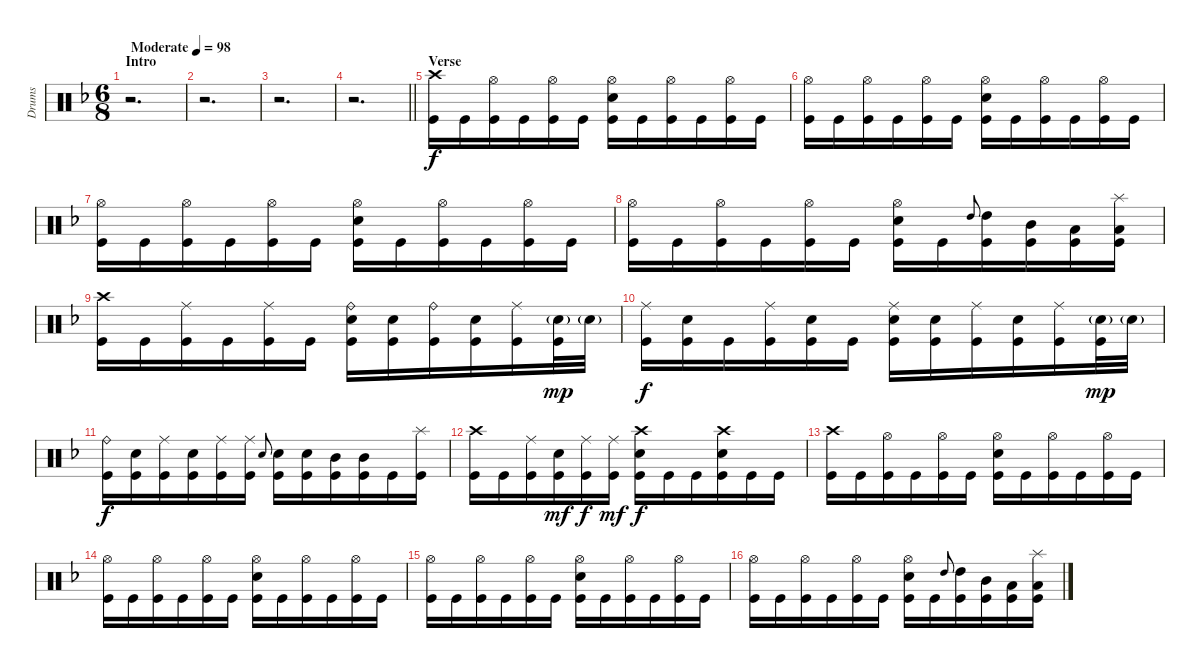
\track ("Drums" "Drums") {instrument percussion bank 10}
\staff {score}
\articulation defaults
\ts (6 8)
\section ("" "Intro")
\tempo (98 "Moderate")
\clef neutral
\ks dminor
r.2{d dy f} |
r.2{d} |
r.2{d} |
\barLineRight lightlight
r.2{d} |
\section ("" "Verse")
("Crash high (hit)" "Kick (hit)").16 "Kick (hit)".16 ("Hi-Hat (open)" "Kick (hit)").16 "Kick (hit)".16 ("Hi-Hat (open)" "Kick (hit)").16 "Kick (hit)".16 ("Hi-Hat (open)" "Electric Snare (hit)" "Kick (hit)").16 "Kick (hit)".16 ("Hi-Hat (open)" "Kick (hit)").16 "Kick (hit)".16 ("Hi-Hat (open)" "Kick (hit)").16 "Kick (hit)".16 |
("Hi-Hat (open)" "Kick (hit)").16 "Kick (hit)".16 ("Hi-Hat (open)" "Kick (hit)").16 "Kick (hit)".16 ("Hi-Hat (open)" "Kick (hit)").16 "Kick (hit)".16 ("Hi-Hat (open)" "Electric Snare (hit)" "Kick (hit)").16 "Kick (hit)".16 ("Hi-Hat (open)" "Kick (hit)").16 "Kick (hit)".16 ("Hi-Hat (open)" "Kick (hit)").16 "Kick (hit)".16 |
("Hi-Hat (open)" "Kick (hit)").16 "Kick (hit)".16 ("Hi-Hat (open)" "Kick (hit)").16 "Kick (hit)".16 ("Hi-Hat (open)" "Kick (hit)").16 "Kick (hit)".16 ("Hi-Hat (open)" "Electric Snare (hit)" "Kick (hit)").16 "Kick (hit)".16 ("Hi-Hat (open)" "Kick (hit)").16 "Kick (hit)".16 ("Hi-Hat (open)" "Kick (hit)").16 "Kick (hit)".16 |
("Hi-Hat (open)" "Kick (hit)").16 "Kick (hit)".16 ("Hi-Hat (open)" "Kick (hit)").16 "Kick (hit)".16 ("Hi-Hat (open)" "Kick (hit)").16 "Kick (hit)".16 ("Hi-Hat (open)" "Electric Snare (hit)" "Kick (hit)").16 "Kick (hit)".16 "High Tom (hit)".8{gr onbeat} ("High Tom (hit)" "Kick (hit)").16 ("Mid Tom (hit)" "Kick (hit)").16 ("Low Tom (hit)" "Kick (hit)").16 ("Splash (hit)" "Low Tom (hit)" "Kick (hit)").16 |
("Crash high (hit)" "Kick (hit)").16 "Kick (hit)".16 ("Ride (middle)" "Kick (hit)").16 "Kick (hit)".16 ("Ride (middle)" "Kick (hit)").16 "Kick (hit)".16 ("Ride (bell)" "Electric Snare (hit)" "Kick (hit)").16 ("Electric Snare (hit)" "Kick (hit)").16 ("Ride (bell)" "Kick (hit)").16 ("Electric Snare (hit)" "Kick (hit)").16 ("Ride (middle)" "Kick (hit)").16 ("Electric Snare (hit)"{g} "Kick (hit)").32{dy mp} "Electric Snare (hit)"{g}.32 |
("Ride (middle)" "Kick (hit)").16{dy f} ("Electric Snare (hit)" "Kick (hit)").16 "Kick (hit)".16 ("Ride (middle)" "Kick (hit)").16 ("Electric Snare (hit)" "Kick (hit)").16 "Kick (hit)".16 ("Ride (middle)" "Electric Snare (hit)" "Kick (hit)").16 ("Electric Snare (hit)" "Kick (hit)").16 ("Ride (middle)" "Kick (hit)").16 ("Electric Snare (hit)" "Kick (hit)").16 ("Ride (middle)" "Kick (hit)").16 ("Electric Snare (hit)"{g} "Kick (hit)").32{dy mp} "Electric Snare (hit)"{g}.32 |
("Ride (bell)" "Kick (hit)").16{dy f} ("Electric Snare (hit)" "Kick (hit)").16 ("Ride (middle)" "Kick (hit)").16 ("Electric Snare (hit)" "Kick (hit)").16 ("Ride (middle)" "Kick (hit)").16 ("Ride (middle)" "Kick (hit)").16 "Electric Snare (hit)".8{gr onbeat} ("Electric Snare (hit)" "Kick (hit)").16 ("Electric Snare (hit)" "Kick (hit)").16 ("Mid Tom (hit)" "Kick (hit)").16 ("Mid Tom (hit)" "Kick (hit)").16 "Kick (hit)".16 ("Splash (hit)" "Kick (hit)").16 |
("Crash high (hit)" "Kick (hit)").16 "Kick (hit)".16 ("Ride (middle)" "Kick (hit)").16 ("Electric Snare (hit)" "Kick (hit)").16{dy mf} ("Ride (middle)" "Kick (hit)").16{dy f} ("Ride (middle)" "Kick (hit)").16{dy mf} ("Crash high (hit)" "Electric Snare (hit)" "Kick (hit)").16{dy f} "Kick (hit)".16 "Kick (hit)".16 ("Crash high (hit)" "Electric Snare (hit)" "Kick (hit)").16 "Kick (hit)".16 "Kick (hit)".16 |
("Crash high (hit)" "Kick (hit)").16 "Kick (hit)".16 ("Hi-Hat (open)" "Kick (hit)").16 "Kick (hit)".16 ("Hi-Hat (open)" "Kick (hit)").16 "Kick (hit)".16 ("Hi-Hat (open)" "Electric Snare (hit)" "Kick (hit)").16 "Kick (hit)".16 ("Hi-Hat (open)" "Kick (hit)").16 "Kick (hit)".16 ("Hi-Hat (open)" "Kick (hit)").16 "Kick (hit)".16 |
("Hi-Hat (open)" "Kick (hit)").16 "Kick (hit)".16 ("Hi-Hat (open)" "Kick (hit)").16 "Kick (hit)".16 ("Hi-Hat (open)" "Kick (hit)").16 "Kick (hit)".16 ("Hi-Hat (open)" "Electric Snare (hit)" "Kick (hit)").16 "Kick (hit)".16 ("Hi-Hat (open)" "Kick (hit)").16 "Kick (hit)".16 ("Hi-Hat (open)" "Kick (hit)").16 "Kick (hit)".16 |
("Hi-Hat (open)" "Kick (hit)").16 "Kick (hit)".16 ("Hi-Hat (open)" "Kick (hit)").16 "Kick (hit)".16 ("Hi-Hat (open)" "Kick (hit)").16 "Kick (hit)".16 ("Hi-Hat (open)" "Electric Snare (hit)" "Kick (hit)").16 "Kick (hit)".16 ("Hi-Hat (open)" "Kick (hit)").16 "Kick (hit)".16 ("Hi-Hat (open)" "Kick (hit)").16 "Kick (hit)".16 |
("Hi-Hat (open)" "Kick (hit)").16 "Kick (hit)".16 ("Hi-Hat (open)" "Kick (hit)").16 "Kick (hit)".16 ("Hi-Hat (open)" "Kick (hit)").16 "Kick (hit)".16 ("Hi-Hat (open)" "Electric Snare (hit)" "Kick (hit)").16 "Kick (hit)".16 "High Tom (hit)".8{gr onbeat} ("High Tom (hit)" "Kick (hit)").16 ("Mid Tom (hit)" "Kick (hit)").16 ("Low Tom (hit)" "Kick (hit)").16 ("Splash (hit)" "Low Tom (hit)" "Kick (hit)").16
